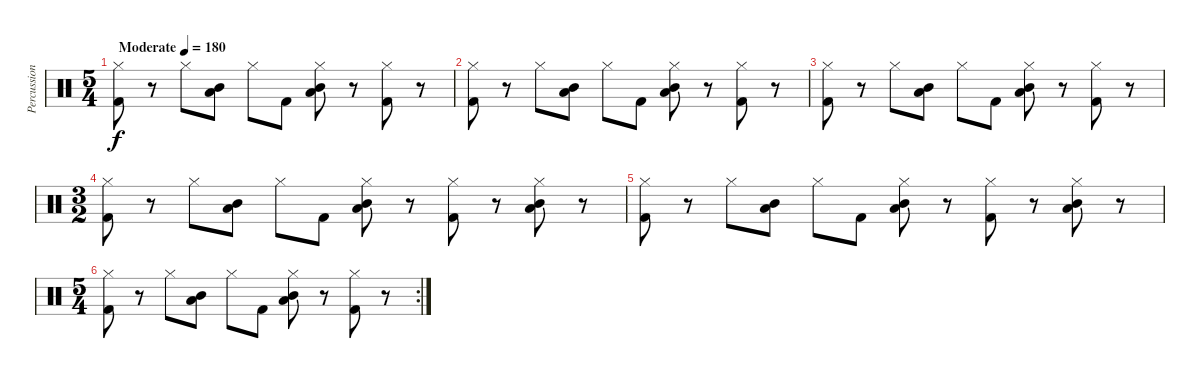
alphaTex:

\track ("Percussion" "Percussion") {instrument percussion}
\staff {score}
\articulation defaults
\ts (5 4)
\tempo (180 "Moderate")
\clef neutral
\ks c
("Hi-Hat (closed)" "Kick (hit) 2").8{dy f} r.8 "Hi-Hat (closed)".8 ("Mid Tom (hit)" "Low Tom (hit)").8 "Hi-Hat (closed)".8 "Kick (hit) 2".8 ("Mid Tom (hit)" "Low Tom (hit)" "Hi-Hat (closed)").8 r.8 ("Hi-Hat (closed)" "Kick (hit) 2").8 r.8 |
("Hi-Hat (closed)" "Kick (hit) 2").8 r.8 "Hi-Hat (closed)".8 ("Mid Tom (hit)" "Low Tom (hit)").8 "Hi-Hat (closed)".8 "Kick (hit) 2".8 ("Mid Tom (hit)" "Low Tom (hit)" "Hi-Hat (closed)").8 r.8 ("Hi-Hat (closed)" "Kick (hit) 2").8 r.8 |
("Hi-Hat (closed)" "Kick (hit) 2").8 r.8 "Hi-Hat (closed)".8 ("Mid Tom (hit)" "Low Tom (hit)").8 "Hi-Hat (closed)".8 "Kick (hit) 2".8 ("Mid Tom (hit)" "Low Tom (hit)" "Hi-Hat (closed)").8 r.8 ("Hi-Hat (closed)" "Kick (hit) 2").8 r.8 |
\ts (3 2)
("Hi-Hat (closed)" "Kick (hit) 2").8 r.8 "Hi-Hat (closed)".8 ("Mid Tom (hit)" "Low Tom (hit)").8 "Hi-Hat (closed)".8 "Kick (hit) 2".8 ("Mid Tom (hit)" "Low Tom (hit)" "Hi-Hat (closed)").8 r.8 ("Hi-Hat (closed)" "Kick (hit) 2").8 r.8 ("Mid Tom (hit)" "Low Tom (hit)" "Hi-Hat (closed)").8 r.8 |
("Hi-Hat (closed)" "Kick (hit) 2").8 r.8 "Hi-Hat (closed)".8 ("Mid Tom (hit)" "Low Tom (hit)").8 "Hi-Hat (closed)".8 "Kick (hit) 2".8 ("Mid Tom (hit)" "Low Tom (hit)" "Hi-Hat (closed)").8 r.8 ("Hi-Hat (closed)" "Kick (hit) 2").8 r.8 ("Mid Tom (hit)" "Low Tom (hit)" "Hi-Hat (closed)").8 r.8 |
\rc 2
\ts (5 4)
("Hi-Hat (closed)" "Kick (hit) 2").8 r.8 "Hi-Hat (closed)".8 ("Mid Tom (hit)" "Low Tom (hit)").8 "Hi-Hat (closed)".8 "Kick (hit) 2".8 ("Mid Tom (hit)" "Low Tom (hit)" "Hi-Hat (closed)").8 r.8 ("Hi-Hat (closed)" "Kick (hit) 2").8 r.8
